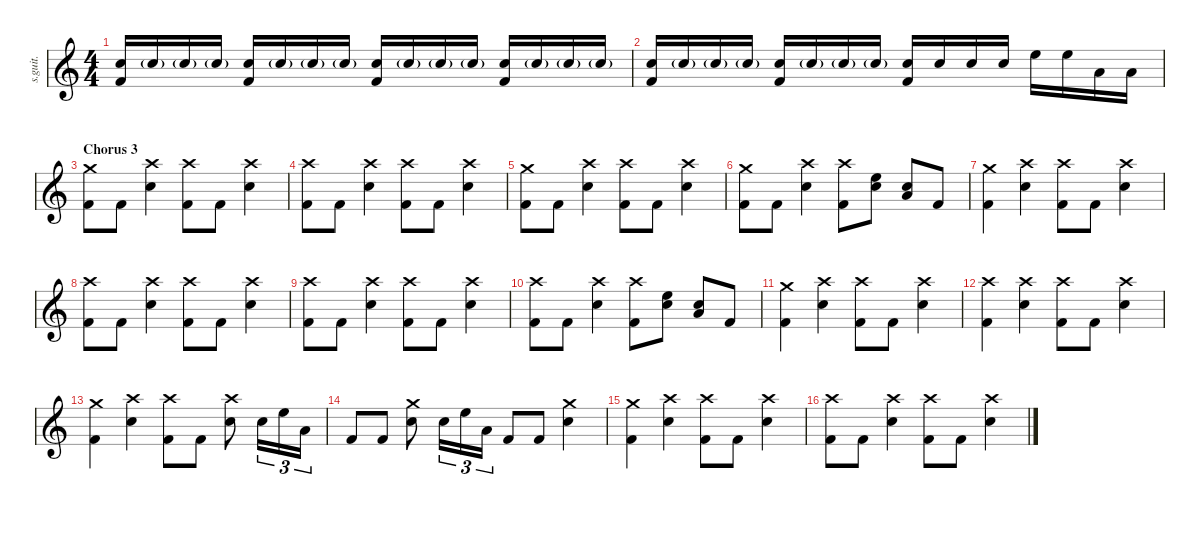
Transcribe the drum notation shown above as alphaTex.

\defaultSystemsLayout 4
\hideDynamics
\bracketExtendMode nobrackets
\track ("Travis" "s.guit.") {instrument percussion}
\staff {score}
\articulation defaults
\ts (4 4)
\tempo (149 hide)
\clef g2
\ks c
("Snare (hit) 2" "Kick (hit) 2").16{lyrics (0 "") lyrics (1 "") lyrics (2 "") lyrics (3 "") lyrics (4 "") dy f} "Snare (hit) 2"{g}.16{lyrics (0 "") lyrics (1 "") lyrics (2 "") lyrics (3 "") lyrics (4 "") dy ppp} "Snare (hit) 2"{g}.16{lyrics (0 "") lyrics (1 "") lyrics (2 "") lyrics (3 "") lyrics (4 "")} "Snare (hit) 2"{g}.16{lyrics (0 "") lyrics (1 "") lyrics (2 "") lyrics (3 "") lyrics (4 "")} ("Snare (hit) 2" "Kick (hit) 2").16{lyrics (0 "") lyrics (1 "") lyrics (2 "") lyrics (3 "") lyrics (4 "") dy f} "Snare (hit) 2"{g}.16{lyrics (0 "") lyrics (1 "") lyrics (2 "") lyrics (3 "") lyrics (4 "") dy ppp} "Snare (hit) 2"{g}.16{lyrics (0 "") lyrics (1 "") lyrics (2 "") lyrics (3 "") lyrics (4 "")} "Snare (hit) 2"{g}.16{lyrics (0 "") lyrics (1 "") lyrics (2 "") lyrics (3 "") lyrics (4 "")} ("Snare (hit) 2" "Kick (hit) 2").16{lyrics (0 "") lyrics (1 "") lyrics (2 "") lyrics (3 "") lyrics (4 "") dy f} "Snare (hit) 2"{g}.16{lyrics (0 "") lyrics (1 "") lyrics (2 "") lyrics (3 "") lyrics (4 "") dy ppp} "Snare (hit) 2"{g}.16{lyrics (0 "") lyrics (1 "") lyrics (2 "") lyrics (3 "") lyrics (4 "")} "Snare (hit) 2"{g}.16{lyrics (0 "") lyrics (1 "") lyrics (2 "") lyrics (3 "") lyrics (4 "")} ("Snare (hit) 2" "Kick (hit) 2").16{lyrics (0 "") lyrics (1 "") lyrics (2 "") lyrics (3 "") lyrics (4 "") dy f} "Snare (hit) 2"{g}.16{lyrics (0 "") lyrics (1 "") lyrics (2 "") lyrics (3 "") lyrics (4 "") dy ppp} "Snare (hit) 2"{g}.16{lyrics (0 "") lyrics (1 "") lyrics (2 "") lyrics (3 "") lyrics (4 "")} "Snare (hit) 2"{g}.16{lyrics (0 "") lyrics (1 "") lyrics (2 "") lyrics (3 "") lyrics (4 "")} |
("Snare (hit) 2" "Kick (hit) 2").16{lyrics (0 "") lyrics (1 "") lyrics (2 "") lyrics (3 "") lyrics (4 "") dy f} "Snare (hit) 2"{g}.16{lyrics (0 "") lyrics (1 "") lyrics (2 "") lyrics (3 "") lyrics (4 "") dy pp} "Snare (hit) 2"{g}.16{lyrics (0 "") lyrics (1 "") lyrics (2 "") lyrics (3 "") lyrics (4 "")} "Snare (hit) 2"{g}.16{lyrics (0 "") lyrics (1 "") lyrics (2 "") lyrics (3 "") lyrics (4 "")} ("Snare (hit) 2" "Kick (hit) 2").16{lyrics (0 "") lyrics (1 "") lyrics (2 "") lyrics (3 "") lyrics (4 "") dy f} "Snare (hit) 2"{g}.16{lyrics (0 "") lyrics (1 "") lyrics (2 "") lyrics (3 "") lyrics (4 "") dy pp} "Snare (hit) 2"{g}.16{lyrics (0 "") lyrics (1 "") lyrics (2 "") lyrics (3 "") lyrics (4 "")} "Snare (hit) 2"{g}.16{lyrics (0 "") lyrics (1 "") lyrics (2 "") lyrics (3 "") lyrics (4 "")} ("Snare (hit) 2" "Kick (hit) 2").16{lyrics (0 "") lyrics (1 "") lyrics (2 "") lyrics (3 "") lyrics (4 "") dy f} "Snare (hit) 2".16{lyrics (0 "") lyrics (1 "") lyrics (2 "") lyrics (3 "") lyrics (4 "")} "Snare (hit) 2".16{lyrics (0 "") lyrics (1 "") lyrics (2 "") lyrics (3 "") lyrics (4 "")} "Snare (hit) 2".16{lyrics (0 "") lyrics (1 "") lyrics (2 "") lyrics (3 "") lyrics (4 "")} "High Floor Tom (hit)".16{lyrics (0 "") lyrics (1 "") lyrics (2 "") lyrics (3 "") lyrics (4 "")} "High Floor Tom (hit)".16{lyrics (0 "") lyrics (1 "") lyrics (2 "") lyrics (3 "") lyrics (4 "")} "Low Tom (hit)".16{lyrics (0 "") lyrics (1 "") lyrics (2 "") lyrics (3 "") lyrics (4 "")} "Low Tom (hit)".16{lyrics (0 "") lyrics (1 "") lyrics (2 "") lyrics (3 "") lyrics (4 "")} |
\section ("" "Chorus 3")
("Crash medium (hit)" "Kick (hit) 2").8{lyrics (0 "") lyrics (1 "") lyrics (2 "") lyrics (3 "") lyrics (4 "")} "Kick (hit) 2".8{lyrics (0 "") lyrics (1 "") lyrics (2 "") lyrics (3 "") lyrics (4 "")} ("Crash high (hit)" "Snare (hit) 2").4{lyrics (0 "") lyrics (1 "") lyrics (2 "") lyrics (3 "") lyrics (4 "")} ("Crash high (hit)" "Kick (hit) 2").8{lyrics (0 "") lyrics (1 "") lyrics (2 "") lyrics (3 "") lyrics (4 "")} "Kick (hit) 2".8{lyrics (0 "") lyrics (1 "") lyrics (2 "") lyrics (3 "") lyrics (4 "")} ("Crash high (hit)" "Snare (hit) 2").4{lyrics (0 "") lyrics (1 "") lyrics (2 "") lyrics (3 "") lyrics (4 "")} |
("Crash high (hit)" "Kick (hit) 2").8{lyrics (0 "") lyrics (1 "") lyrics (2 "") lyrics (3 "") lyrics (4 "")} "Kick (hit) 2".8{lyrics (0 "") lyrics (1 "") lyrics (2 "") lyrics (3 "") lyrics (4 "")} ("Crash high (hit)" "Snare (hit) 2").4{lyrics (0 "") lyrics (1 "") lyrics (2 "") lyrics (3 "") lyrics (4 "")} ("Crash high (hit)" "Kick (hit) 2").8{lyrics (0 "") lyrics (1 "") lyrics (2 "") lyrics (3 "") lyrics (4 "")} "Kick (hit) 2".8{lyrics (0 "") lyrics (1 "") lyrics (2 "") lyrics (3 "") lyrics (4 "")} ("Crash high (hit)" "Snare (hit) 2").4{lyrics (0 "") lyrics (1 "") lyrics (2 "") lyrics (3 "") lyrics (4 "")} |
("Crash medium (hit)" "Kick (hit) 2").8{lyrics (0 "") lyrics (1 "") lyrics (2 "") lyrics (3 "") lyrics (4 "")} "Kick (hit) 2".8{lyrics (0 "") lyrics (1 "") lyrics (2 "") lyrics (3 "") lyrics (4 "")} ("Crash high (hit)" "Snare (hit) 2").4{lyrics (0 "") lyrics (1 "") lyrics (2 "") lyrics (3 "") lyrics (4 "")} ("Crash high (hit)" "Kick (hit) 2").8{lyrics (0 "") lyrics (1 "") lyrics (2 "") lyrics (3 "") lyrics (4 "")} "Kick (hit) 2".8{lyrics (0 "") lyrics (1 "") lyrics (2 "") lyrics (3 "") lyrics (4 "")} ("Crash high (hit)" "Snare (hit) 2").4{lyrics (0 "") lyrics (1 "") lyrics (2 "") lyrics (3 "") lyrics (4 "")} |
("Crash medium (hit)" "Kick (hit) 2").8{lyrics (0 "") lyrics (1 "") lyrics (2 "") lyrics (3 "") lyrics (4 "")} "Kick (hit) 2".8{lyrics (0 "") lyrics (1 "") lyrics (2 "") lyrics (3 "") lyrics (4 "")} ("Crash high (hit)" "Snare (hit) 2").4{lyrics (0 "") lyrics (1 "") lyrics (2 "") lyrics (3 "") lyrics (4 "")} ("Crash high (hit)" "Kick (hit) 2").8{lyrics (0 "") lyrics (1 "") lyrics (2 "") lyrics (3 "") lyrics (4 "")} ("High Floor Tom (hit)" "Snare (hit) 2").8{lyrics (0 "") lyrics (1 "") lyrics (2 "") lyrics (3 "") lyrics (4 "")} ("Snare (hit) 2" "Low Tom (hit)").8{lyrics (0 "") lyrics (1 "") lyrics (2 "") lyrics (3 "") lyrics (4 "")} "Kick (hit) 2".8{lyrics (0 "") lyrics (1 "") lyrics (2 "") lyrics (3 "") lyrics (4 "")} |
("Crash medium (hit)" "Kick (hit) 2").4{lyrics (0 "") lyrics (1 "") lyrics (2 "") lyrics (3 "") lyrics (4 "")} ("Crash high (hit)" "Snare (hit) 2").4{lyrics (0 "") lyrics (1 "") lyrics (2 "") lyrics (3 "") lyrics (4 "")} ("Crash high (hit)" "Kick (hit) 2").8{lyrics (0 "") lyrics (1 "") lyrics (2 "") lyrics (3 "") lyrics (4 "")} "Kick (hit) 2".8{lyrics (0 "") lyrics (1 "") lyrics (2 "") lyrics (3 "") lyrics (4 "")} ("Crash high (hit)" "Snare (hit) 2").4{lyrics (0 "") lyrics (1 "") lyrics (2 "") lyrics (3 "") lyrics (4 "")} |
("Crash high (hit)" "Kick (hit) 2").8{lyrics (0 "") lyrics (1 "") lyrics (2 "") lyrics (3 "") lyrics (4 "")} "Kick (hit) 2".8{lyrics (0 "") lyrics (1 "") lyrics (2 "") lyrics (3 "") lyrics (4 "")} ("Crash high (hit)" "Snare (hit) 2").4{lyrics (0 "") lyrics (1 "") lyrics (2 "") lyrics (3 "") lyrics (4 "")} ("Crash high (hit)" "Kick (hit) 2").8{lyrics (0 "") lyrics (1 "") lyrics (2 "") lyrics (3 "") lyrics (4 "")} "Kick (hit) 2".8{lyrics (0 "") lyrics (1 "") lyrics (2 "") lyrics (3 "") lyrics (4 "")} ("Crash high (hit)" "Snare (hit) 2").4{lyrics (0 "") lyrics (1 "") lyrics (2 "") lyrics (3 "") lyrics (4 "")} |
("Crash high (hit)" "Kick (hit) 2").8{lyrics (0 "") lyrics (1 "") lyrics (2 "") lyrics (3 "") lyrics (4 "")} "Kick (hit) 2".8{lyrics (0 "") lyrics (1 "") lyrics (2 "") lyrics (3 "") lyrics (4 "")} ("Crash high (hit)" "Snare (hit) 2").4{lyrics (0 "") lyrics (1 "") lyrics (2 "") lyrics (3 "") lyrics (4 "")} ("Crash high (hit)" "Kick (hit) 2").8{lyrics (0 "") lyrics (1 "") lyrics (2 "") lyrics (3 "") lyrics (4 "")} "Kick (hit) 2".8{lyrics (0 "") lyrics (1 "") lyrics (2 "") lyrics (3 "") lyrics (4 "")} ("Crash high (hit)" "Snare (hit) 2").4{lyrics (0 "") lyrics (1 "") lyrics (2 "") lyrics (3 "") lyrics (4 "")} |
("Crash high (hit)" "Kick (hit) 2").8{lyrics (0 "") lyrics (1 "") lyrics (2 "") lyrics (3 "") lyrics (4 "")} "Kick (hit) 2".8{lyrics (0 "") lyrics (1 "") lyrics (2 "") lyrics (3 "") lyrics (4 "")} ("Crash high (hit)" "Snare (hit) 2").4{lyrics (0 "") lyrics (1 "") lyrics (2 "") lyrics (3 "") lyrics (4 "")} ("Crash high (hit)" "Kick (hit) 2").8{lyrics (0 "") lyrics (1 "") lyrics (2 "") lyrics (3 "") lyrics (4 "")} ("High Floor Tom (hit)" "Snare (hit) 2").8{lyrics (0 "") lyrics (1 "") lyrics (2 "") lyrics (3 "") lyrics (4 "")} ("Snare (hit) 2" "Low Tom (hit)").8{lyrics (0 "") lyrics (1 "") lyrics (2 "") lyrics (3 "") lyrics (4 "")} "Kick (hit) 2".8{lyrics (0 "") lyrics (1 "") lyrics (2 "") lyrics (3 "") lyrics (4 "")} |
("Crash medium (hit)" "Kick (hit) 2").4{lyrics (0 "") lyrics (1 "") lyrics (2 "") lyrics (3 "") lyrics (4 "")} ("Crash high (hit)" "Snare (hit) 2").4{lyrics (0 "") lyrics (1 "") lyrics (2 "") lyrics (3 "") lyrics (4 "")} ("Crash high (hit)" "Kick (hit) 2").8{lyrics (0 "") lyrics (1 "") lyrics (2 "") lyrics (3 "") lyrics (4 "")} "Kick (hit) 2".8{lyrics (0 "") lyrics (1 "") lyrics (2 "") lyrics (3 "") lyrics (4 "")} ("Crash high (hit)" "Snare (hit) 2").4{lyrics (0 "") lyrics (1 "") lyrics (2 "") lyrics (3 "") lyrics (4 "")} |
("Crash high (hit)" "Kick (hit) 2").4{lyrics (0 "") lyrics (1 "") lyrics (2 "") lyrics (3 "") lyrics (4 "")} ("Crash high (hit)" "Snare (hit) 2").4{lyrics (0 "") lyrics (1 "") lyrics (2 "") lyrics (3 "") lyrics (4 "")} ("Crash high (hit)" "Kick (hit) 2").8{lyrics (0 "") lyrics (1 "") lyrics (2 "") lyrics (3 "") lyrics (4 "")} "Kick (hit) 2".8{lyrics (0 "") lyrics (1 "") lyrics (2 "") lyrics (3 "") lyrics (4 "")} ("Crash high (hit)" "Snare (hit) 2").4{lyrics (0 "") lyrics (1 "") lyrics (2 "") lyrics (3 "") lyrics (4 "")} |
("Crash medium (hit)" "Kick (hit) 2").4{lyrics (0 "") lyrics (1 "") lyrics (2 "") lyrics (3 "") lyrics (4 "")} ("Crash high (hit)" "Snare (hit) 2").4{lyrics (0 "") lyrics (1 "") lyrics (2 "") lyrics (3 "") lyrics (4 "")} ("Crash high (hit)" "Kick (hit) 2").8{lyrics (0 "") lyrics (1 "") lyrics (2 "") lyrics (3 "") lyrics (4 "")} "Kick (hit) 2".8{lyrics (0 "") lyrics (1 "") lyrics (2 "") lyrics (3 "") lyrics (4 "")} ("Crash high (hit)" "Snare (hit) 2").8{lyrics (0 "") lyrics (1 "") lyrics (2 "") lyrics (3 "") lyrics (4 "")} "Snare (hit) 2".16{tu (3 2) lyrics (0 "") lyrics (1 "") lyrics (2 "") lyrics (3 "") lyrics (4 "")} "High Floor Tom (hit)".16{tu (3 2) lyrics (0 "") lyrics (1 "") lyrics (2 "") lyrics (3 "") lyrics (4 "")} "Low Tom (hit)".16{tu (3 2) lyrics (0 "") lyrics (1 "") lyrics (2 "") lyrics (3 "") lyrics (4 "")} |
"Kick (hit) 2".8{lyrics (0 "") lyrics (1 "") lyrics (2 "") lyrics (3 "") lyrics (4 "")} "Kick (hit) 2".8{lyrics (0 "") lyrics (1 "") lyrics (2 "") lyrics (3 "") lyrics (4 "")} ("Crash medium (hit)" "Snare (hit) 2").8{lyrics (0 "") lyrics (1 "") lyrics (2 "") lyrics (3 "") lyrics (4 "")} "Snare (hit) 2".16{tu (3 2) lyrics (0 "") lyrics (1 "") lyrics (2 "") lyrics (3 "") lyrics (4 "")} "High Floor Tom (hit)".16{tu (3 2) lyrics (0 "") lyrics (1 "") lyrics (2 "") lyrics (3 "") lyrics (4 "")} "Low Tom (hit)".16{tu (3 2) lyrics (0 "") lyrics (1 "") lyrics (2 "") lyrics (3 "") lyrics (4 "")} "Kick (hit) 2".8{lyrics (0 "") lyrics (1 "") lyrics (2 "") lyrics (3 "") lyrics (4 "")} "Kick (hit) 2".8{lyrics (0 "") lyrics (1 "") lyrics (2 "") lyrics (3 "") lyrics (4 "")} ("Crash medium (hit)" "Snare (hit) 2").4{lyrics (0 "") lyrics (1 "") lyrics (2 "") lyrics (3 "") lyrics (4 "")} |
("Crash medium (hit)" "Kick (hit) 2").4{lyrics (0 "") lyrics (1 "") lyrics (2 "") lyrics (3 "") lyrics (4 "")} ("Crash high (hit)" "Snare (hit) 2").4{lyrics (0 "") lyrics (1 "") lyrics (2 "") lyrics (3 "") lyrics (4 "")} ("Crash high (hit)" "Kick (hit) 2").8{lyrics (0 "") lyrics (1 "") lyrics (2 "") lyrics (3 "") lyrics (4 "")} "Kick (hit) 2".8{lyrics (0 "") lyrics (1 "") lyrics (2 "") lyrics (3 "") lyrics (4 "")} ("Crash high (hit)" "Snare (hit) 2").4{lyrics (0 "") lyrics (1 "") lyrics (2 "") lyrics (3 "") lyrics (4 "")} |
("Crash high (hit)" "Kick (hit) 2").8{lyrics (0 "") lyrics (1 "") lyrics (2 "") lyrics (3 "") lyrics (4 "")} "Kick (hit) 2".8{lyrics (0 "") lyrics (1 "") lyrics (2 "") lyrics (3 "") lyrics (4 "")} ("Crash high (hit)" "Snare (hit) 2").4{lyrics (0 "") lyrics (1 "") lyrics (2 "") lyrics (3 "") lyrics (4 "")} ("Crash high (hit)" "Kick (hit) 2").8{lyrics (0 "") lyrics (1 "") lyrics (2 "") lyrics (3 "") lyrics (4 "")} "Kick (hit) 2".8{lyrics (0 "") lyrics (1 "") lyrics (2 "") lyrics (3 "") lyrics (4 "")} ("Crash high (hit)" "Snare (hit) 2").4{lyrics (0 "") lyrics (1 "") lyrics (2 "") lyrics (3 "") lyrics (4 "")}
